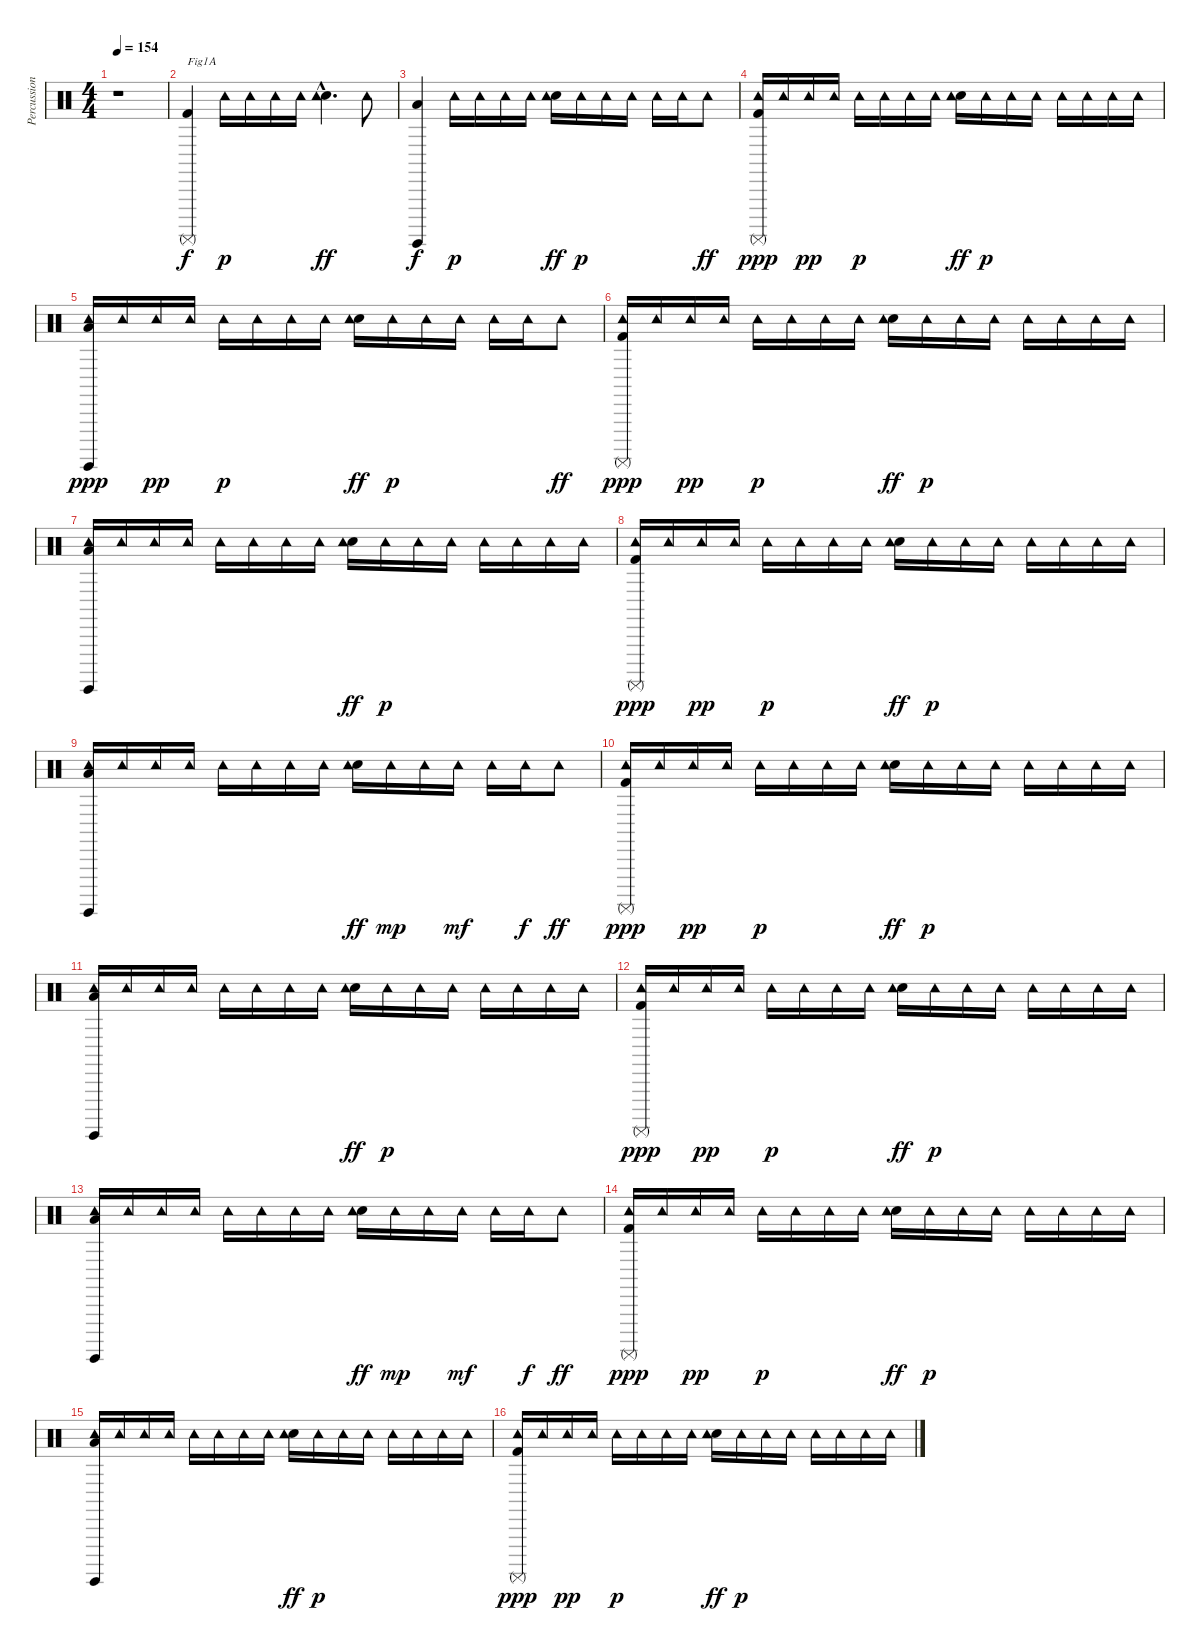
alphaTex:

\track ("Percussions" "Percussion") {instrument percussion}
\staff {score}
\articulation defaults
\ts (4 4)
\tempo 154
\clef neutral
\ks c
r.1{dy f} |
("Kick (hit) 2" "Surdo (mute)").4{txt "Fig1A"} "Tambourine (hit)".16{dy p} "Tambourine (hit)".16 "Tambourine (hit)".16 "Tambourine (hit)".16 ("Electric Snare (hit)"{hac} "Tambourine (hit)"{hac}).4{d dy ff} "Tambourine (hit)".8 |
("Low Tom (hit)" "Surdo (hit)").4{dy f} "Tambourine (hit)".16{dy p} "Tambourine (hit)".16 "Tambourine (hit)".16 "Tambourine (hit)".16 ("Electric Snare (hit)" "Tambourine (hit)").16{dy ff} "Tambourine (hit)".16{dy p} "Tambourine (hit)".16 "Tambourine (hit)".16 "Tambourine (hit)".16 "Tambourine (hit)".16 "Tambourine (hit)".8{dy ff} |
("Kick (hit) 2" "Surdo (mute)" "Tambourine (hit)").16{dy ppp} "Tambourine (hit)".16 "Tambourine (hit)".16{dy pp} "Tambourine (hit)".16 "Tambourine (hit)".16{dy p} "Tambourine (hit)".16 "Tambourine (hit)".16 "Tambourine (hit)".16 ("Electric Snare (hit)" "Tambourine (hit)").16{dy ff} "Tambourine (hit)".16{dy p} "Tambourine (hit)".16 "Tambourine (hit)".16 "Tambourine (hit)".16 "Tambourine (hit)".16 "Tambourine (hit)".16 "Tambourine (hit)".16 |
("Low Tom (hit)" "Surdo (hit)" "Tambourine (hit)").16{dy ppp} "Tambourine (hit)".16 "Tambourine (hit)".16{dy pp} "Tambourine (hit)".16 "Tambourine (hit)".16{dy p} "Tambourine (hit)".16 "Tambourine (hit)".16 "Tambourine (hit)".16 ("Electric Snare (hit)" "Tambourine (hit)").16{dy ff} "Tambourine (hit)".16{dy p} "Tambourine (hit)".16 "Tambourine (hit)".16 "Tambourine (hit)".16 "Tambourine (hit)".16 "Tambourine (hit)".8{dy ff} |
("Kick (hit) 2" "Surdo (mute)" "Tambourine (hit)").16{dy ppp} "Tambourine (hit)".16 "Tambourine (hit)".16{dy pp} "Tambourine (hit)".16 "Tambourine (hit)".16{dy p} "Tambourine (hit)".16 "Tambourine (hit)".16 "Tambourine (hit)".16 ("Electric Snare (hit)" "Tambourine (hit)").16{dy ff} "Tambourine (hit)".16{dy p} "Tambourine (hit)".16 "Tambourine (hit)".16 "Tambourine (hit)".16 "Tambourine (hit)".16 "Tambourine (hit)".16 "Tambourine (hit)".16 |
("Low Tom (hit)" "Surdo (hit)" "Tambourine (hit)").16 "Tambourine (hit)".16 "Tambourine (hit)".16 "Tambourine (hit)".16 "Tambourine (hit)".16 "Tambourine (hit)".16 "Tambourine (hit)".16 "Tambourine (hit)".16 ("Electric Snare (hit)" "Tambourine (hit)").16{dy ff} "Tambourine (hit)".16{dy p} "Tambourine (hit)".16 "Tambourine (hit)".16 "Tambourine (hit)".16 "Tambourine (hit)".16 "Tambourine (hit)".16 "Tambourine (hit)".16 |
("Kick (hit) 2" "Surdo (mute)" "Tambourine (hit)").16{dy ppp} "Tambourine (hit)".16 "Tambourine (hit)".16{dy pp} "Tambourine (hit)".16 "Tambourine (hit)".16{dy p} "Tambourine (hit)".16 "Tambourine (hit)".16 "Tambourine (hit)".16 ("Electric Snare (hit)" "Tambourine (hit)").16{dy ff} "Tambourine (hit)".16{dy p} "Tambourine (hit)".16 "Tambourine (hit)".16 "Tambourine (hit)".16 "Tambourine (hit)".16 "Tambourine (hit)".16 "Tambourine (hit)".16 |
("Low Tom (hit)" "Surdo (hit)" "Tambourine (hit)").16 "Tambourine (hit)".16 "Tambourine (hit)".16 "Tambourine (hit)".16 "Tambourine (hit)".16 "Tambourine (hit)".16 "Tambourine (hit)".16 "Tambourine (hit)".16 ("Electric Snare (hit)" "Tambourine (hit)").16{dy ff} "Tambourine (hit)".16{dy mp} "Tambourine (hit)".16 "Tambourine (hit)".16{dy mf} "Tambourine (hit)".16 "Tambourine (hit)".16{dy f} "Tambourine (hit)".8{dy ff} |
("Kick (hit) 2" "Surdo (mute)" "Tambourine (hit)").16{dy ppp} "Tambourine (hit)".16 "Tambourine (hit)".16{dy pp} "Tambourine (hit)".16 "Tambourine (hit)".16{dy p} "Tambourine (hit)".16 "Tambourine (hit)".16 "Tambourine (hit)".16 ("Electric Snare (hit)" "Tambourine (hit)").16{dy ff} "Tambourine (hit)".16{dy p} "Tambourine (hit)".16 "Tambourine (hit)".16 "Tambourine (hit)".16 "Tambourine (hit)".16 "Tambourine (hit)".16 "Tambourine (hit)".16 |
("Low Tom (hit)" "Surdo (hit)" "Tambourine (hit)").16 "Tambourine (hit)".16 "Tambourine (hit)".16 "Tambourine (hit)".16 "Tambourine (hit)".16 "Tambourine (hit)".16 "Tambourine (hit)".16 "Tambourine (hit)".16 ("Electric Snare (hit)" "Tambourine (hit)").16{dy ff} "Tambourine (hit)".16{dy p} "Tambourine (hit)".16 "Tambourine (hit)".16 "Tambourine (hit)".16 "Tambourine (hit)".16 "Tambourine (hit)".16 "Tambourine (hit)".16 |
("Kick (hit) 2" "Surdo (mute)" "Tambourine (hit)").16{dy ppp} "Tambourine (hit)".16 "Tambourine (hit)".16{dy pp} "Tambourine (hit)".16 "Tambourine (hit)".16{dy p} "Tambourine (hit)".16 "Tambourine (hit)".16 "Tambourine (hit)".16 ("Electric Snare (hit)" "Tambourine (hit)").16{dy ff} "Tambourine (hit)".16{dy p} "Tambourine (hit)".16 "Tambourine (hit)".16 "Tambourine (hit)".16 "Tambourine (hit)".16 "Tambourine (hit)".16 "Tambourine (hit)".16 |
("Low Tom (hit)" "Surdo (hit)" "Tambourine (hit)").16 "Tambourine (hit)".16 "Tambourine (hit)".16 "Tambourine (hit)".16 "Tambourine (hit)".16 "Tambourine (hit)".16 "Tambourine (hit)".16 "Tambourine (hit)".16 ("Electric Snare (hit)" "Tambourine (hit)").16{dy ff} "Tambourine (hit)".16{dy mp} "Tambourine (hit)".16 "Tambourine (hit)".16{dy mf} "Tambourine (hit)".16 "Tambourine (hit)".16{dy f} "Tambourine (hit)".8{dy ff} |
("Kick (hit) 2" "Surdo (mute)" "Tambourine (hit)").16{dy ppp} "Tambourine (hit)".16 "Tambourine (hit)".16{dy pp} "Tambourine (hit)".16 "Tambourine (hit)".16{dy p} "Tambourine (hit)".16 "Tambourine (hit)".16 "Tambourine (hit)".16 ("Electric Snare (hit)" "Tambourine (hit)").16{dy ff} "Tambourine (hit)".16{dy p} "Tambourine (hit)".16 "Tambourine (hit)".16 "Tambourine (hit)".16 "Tambourine (hit)".16 "Tambourine (hit)".16 "Tambourine (hit)".16 |
("Low Tom (hit)" "Surdo (hit)" "Tambourine (hit)").16 "Tambourine (hit)".16 "Tambourine (hit)".16 "Tambourine (hit)".16 "Tambourine (hit)".16 "Tambourine (hit)".16 "Tambourine (hit)".16 "Tambourine (hit)".16 ("Electric Snare (hit)" "Tambourine (hit)").16{dy ff} "Tambourine (hit)".16{dy p} "Tambourine (hit)".16 "Tambourine (hit)".16 "Tambourine (hit)".16 "Tambourine (hit)".16 "Tambourine (hit)".16 "Tambourine (hit)".16 |
("Kick (hit) 2" "Surdo (mute)" "Tambourine (hit)").16{dy ppp} "Tambourine (hit)".16 "Tambourine (hit)".16{dy pp} "Tambourine (hit)".16 "Tambourine (hit)".16{dy p} "Tambourine (hit)".16 "Tambourine (hit)".16 "Tambourine (hit)".16 ("Electric Snare (hit)" "Tambourine (hit)").16{dy ff} "Tambourine (hit)".16{dy p} "Tambourine (hit)".16 "Tambourine (hit)".16 "Tambourine (hit)".16 "Tambourine (hit)".16 "Tambourine (hit)".16 "Tambourine (hit)".16
